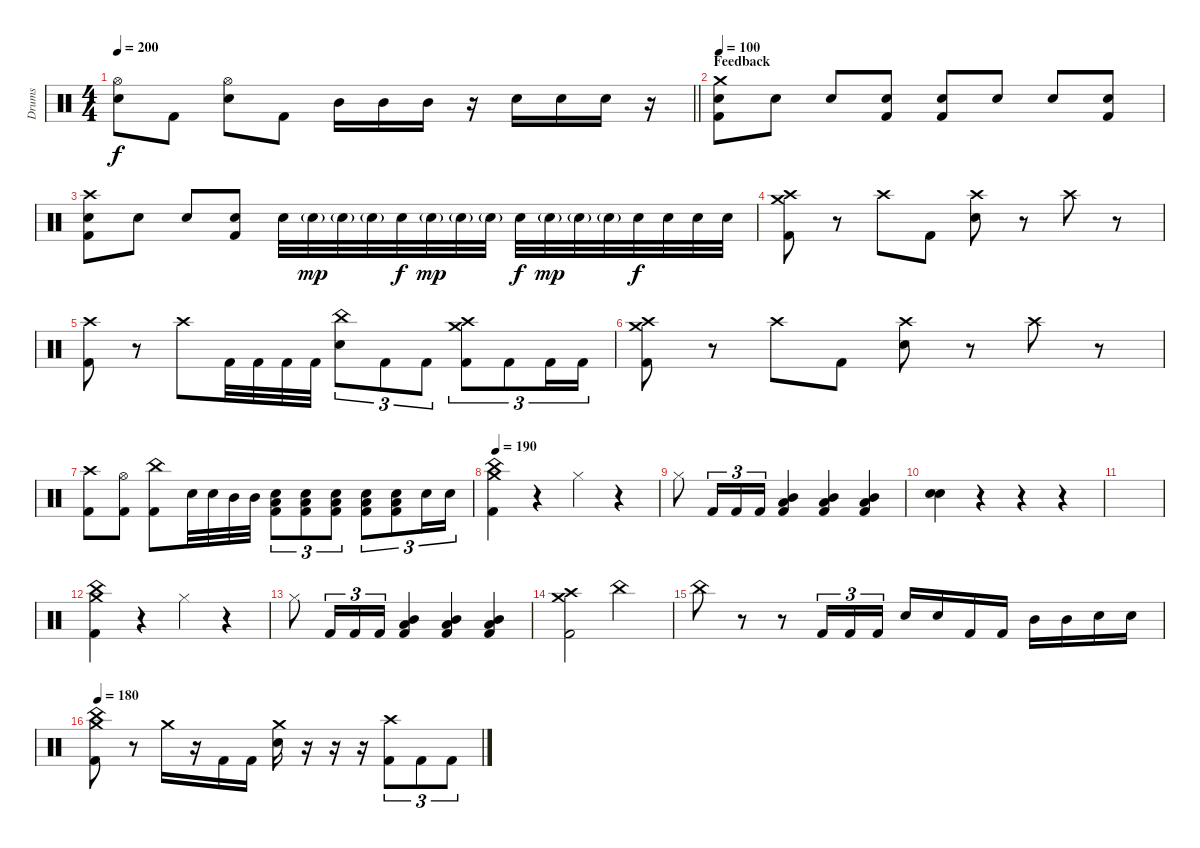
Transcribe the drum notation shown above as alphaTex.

\track ("Drums" "Drums") {instrument percussion}
\staff {score}
\articulation defaults
\ts (4 4)
\tempo 200
\clef neutral
\barLineRight lightlight
\ks c
("Hi-Hat (open)" "Electric Snare (hit)").8{dy f} "Kick (hit) 2".8 ("Hi-Hat (open)" "Electric Snare (hit)").8 "Kick (hit) 2".8 "Mid Tom (hit)".16 "Mid Tom (hit)".16 "Mid Tom (hit)".16 r.16 "Electric Snare (hit)".16 "Electric Snare (hit)".16 "Electric Snare (hit)".16 r.16 |
\section ("" "Feedback")
\tempo 100
("Crash medium (hit)" "Electric Snare (hit)" "Kick (hit) 2").8 "Electric Snare (hit)".8 "Electric Snare (hit)".8 ("Electric Snare (hit)" "Kick (hit) 2").8 ("Electric Snare (hit)" "Kick (hit) 2").8 "Electric Snare (hit)".8 "Electric Snare (hit)".8 ("Electric Snare (hit)" "Kick (hit) 2").8 |
("Crash high (hit)" "Electric Snare (hit)" "Kick (hit) 2").8 "Electric Snare (hit)".8 "Electric Snare (hit)".8 ("Electric Snare (hit)" "Kick (hit) 2").8 "Electric Snare (hit)".32 "Electric Snare (hit)"{g}.32{dy mp} "Electric Snare (hit)"{g}.32 "Electric Snare (hit)"{g}.32 "Electric Snare (hit)".32{dy f} "Electric Snare (hit)"{g}.32{dy mp} "Electric Snare (hit)"{g}.32 "Electric Snare (hit)"{g}.32 "Electric Snare (hit)".32{dy f} "Electric Snare (hit)"{g}.32{dy mp} "Electric Snare (hit)"{g}.32 "Electric Snare (hit)"{g}.32 "Electric Snare (hit)".32{dy f} "Electric Snare (hit)".32 "Electric Snare (hit)".32 "Electric Snare (hit)".32 |
("Crash medium (hit)" "Crash high (hit)" "Kick (hit) 2").8 r.8 "Crash high (hit)".8 "Kick (hit) 2".8 ("Crash high (hit)" "Electric Snare (hit)").8 r.8 "Crash high (hit)".8 r.8 |
("Crash high (hit)" "Kick (hit) 2").8 r.8 "Crash high (hit)".8 "Kick (hit) 2".32 "Kick (hit) 2".32 "Kick (hit) 2".32 "Kick (hit) 2".32 ("China (hit)" "Electric Snare (hit)").8{tu (3 2)} "Kick (hit) 2".8{tu (3 2)} "Kick (hit) 2".8{tu (3 2)} ("Crash medium (hit)" "Crash high (hit)" "Kick (hit) 2").8{tu (3 2)} "Kick (hit) 2".8{tu (3 2)} "Kick (hit) 2".16{tu (3 2)} "Kick (hit) 2".16{tu (3 2)} |
("Crash medium (hit)" "Crash high (hit)" "Kick (hit) 2").8 r.8 "Crash high (hit)".8 "Kick (hit) 2".8 ("Crash high (hit)" "Electric Snare (hit)").8 r.8 "Crash high (hit)".8 r.8 |
("Crash high (hit)" "Kick (hit) 2").8 ("Hi-Hat (open)" "Kick (hit) 2").8 ("China (hit)" "Kick (hit) 2").8 "Electric Snare (hit)".32 "Electric Snare (hit)".32 "Mid Tom (hit)".32 "Mid Tom (hit)".32 ("Low Floor Tom (hit)" "Electric Snare (hit)" "Kick (hit) 2").8{tu (3 2) bd 120} ("Low Floor Tom (hit)" "Electric Snare (hit)" "Kick (hit) 2").8{tu (3 2) bd 120} ("Low Floor Tom (hit)" "Electric Snare (hit)" "Kick (hit) 2").8{tu (3 2) bd 120} ("Low Floor Tom (hit)" "Electric Snare (hit)" "Kick (hit) 2").8{tu (3 2) bd 120} ("Low Floor Tom (hit)" "Electric Snare (hit)" "Kick (hit) 2").8{tu (3 2) bd 120} "Electric Snare (hit)".16{tu (3 2)} "Electric Snare (hit)".16{tu (3 2)} |
\tempo 190
("China (hit)" "Crash medium (hit)" "Kick (hit) 2").4 r.4 "Hi-Hat (closed)".4 r.4 |
"Hi-Hat (closed)".8 "Kick (hit) 2".16{tu (3 2)} "Kick (hit) 2".16{tu (3 2)} "Kick (hit) 2".16{tu (3 2)} ("Low Floor Tom (hit)" "Kick (hit) 2" "Mid Tom (hit)").4{bd 120} ("Low Floor Tom (hit)" "Kick (hit) 2" "Mid Tom (hit)").4{bd 120} ("Low Floor Tom (hit)" "Kick (hit) 2" "Mid Tom (hit)").4{bd 120} |
("Electric Snare (hit)" "Electric Snare (hit)").4 r.4 r.4 r.4 |
|
("China (hit)" "Crash medium (hit)" "Kick (hit) 2").4 r.4 "Hi-Hat (closed)".4 r.4 |
"Hi-Hat (closed)".8 "Kick (hit) 2".16{tu (3 2)} "Kick (hit) 2".16{tu (3 2)} "Kick (hit) 2".16{tu (3 2)} ("Low Floor Tom (hit)" "Kick (hit) 2" "Mid Tom (hit)").4{bd 120} ("Low Floor Tom (hit)" "Kick (hit) 2" "Mid Tom (hit)").4{bd 120} ("Low Floor Tom (hit)" "Kick (hit) 2" "Mid Tom (hit)").4{bd 120} |
("Crash high (hit)" "Crash medium (hit)" "Kick (hit) 2").2 "China (hit)".2 |
"China (hit)".8 r.8 r.8 "Kick (hit) 2".16{tu (3 2)} "Kick (hit) 2".16{tu (3 2)} "Kick (hit) 2".16{tu (3 2)} "Electric Snare (hit)".16 "Electric Snare (hit)".16 "Kick (hit) 2".16 "Kick (hit) 2".16 "Mid Tom (hit)".16 "Mid Tom (hit)".16 "Electric Snare (hit)".16 "Electric Snare (hit)".16 |
\tempo 180
("China (hit)" "Crash medium (hit)" "Kick (hit) 2").8 r.8 "Crash medium (hit)".16 r.16 "Kick (hit) 2".16 "Kick (hit) 2".16 ("Crash medium (hit)" "Electric Snare (hit)").16 r.16 r.16 r.16 ("Crash high (hit)" "Kick (hit) 2").8{tu (3 2)} "Kick (hit) 2".8{tu (3 2)} "Kick (hit) 2".8{tu (3 2)}
